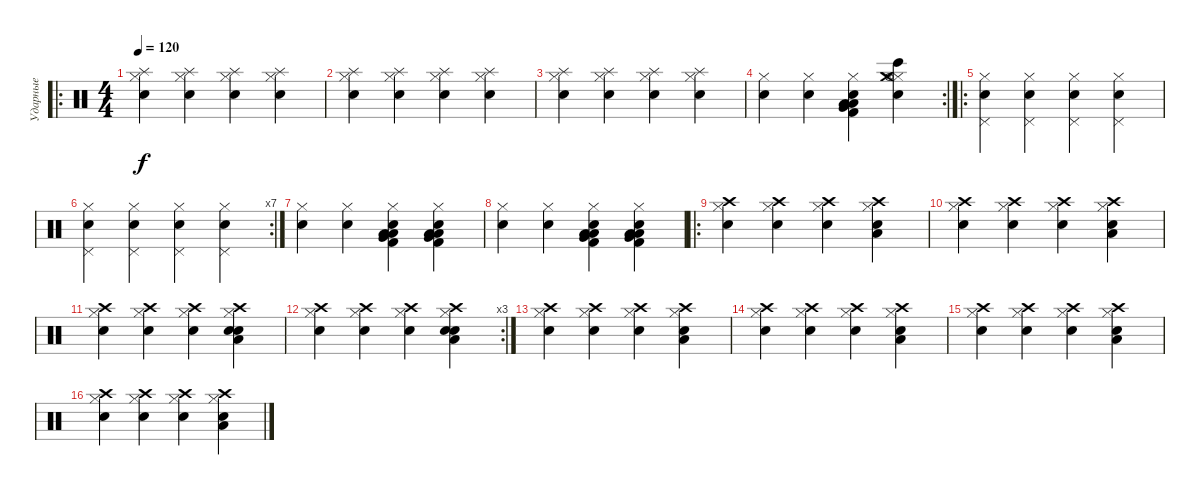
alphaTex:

\track ("Ударные" "Ударные") {instrument percussion}
\staff {score}
\articulation defaults
\ro
\ts (4 4)
\tempo 120
\clef neutral
\ks c
("Hi-Hat (closed)" "Snare (hit) 2" "Splash (hit)").4{dy f} ("Hi-Hat (closed)" "Snare (hit) 2" "Splash (hit)").4 ("Hi-Hat (closed)" "Snare (hit) 2" "Splash (hit)").4 ("Hi-Hat (closed)" "Snare (hit) 2" "Splash (hit)").4 |
("Hi-Hat (closed)" "Snare (hit) 2" "Splash (hit)").4 ("Hi-Hat (closed)" "Snare (hit) 2" "Splash (hit)").4 ("Hi-Hat (closed)" "Snare (hit) 2" "Splash (hit)").4 ("Hi-Hat (closed)" "Snare (hit) 2" "Splash (hit)").4 |
("Hi-Hat (closed)" "Snare (hit) 2" "Splash (hit)").4 ("Hi-Hat (closed)" "Snare (hit) 2" "Splash (hit)").4 ("Hi-Hat (closed)" "Snare (hit) 2" "Splash (hit)").4 ("Hi-Hat (closed)" "Snare (hit) 2" "Splash (hit)").4 |
\rc 2
("Hi-Hat (closed)" "Snare (hit) 2").4 ("Hi-Hat (closed)" "Snare (hit) 2").4 ("Hi-Hat (closed)" "Kick (hit) 2" "Low Tom (hit)" "Snare (hit) 2" "Low Floor Tom (hit)" "Very Low Tom (hit)").4 ("Hi-Hat (closed)" "Crash medium (hit)" "Hi-Hat (open)" "Snare (hit) 2" "Bongo High (hit)").4 |
\ro
("Hi-Hat (closed)" "Snare (hit) 2" "Pedal Hi-Hat (hit)").4 ("Hi-Hat (closed)" "Snare (hit) 2" "Pedal Hi-Hat (hit)").4 ("Hi-Hat (closed)" "Snare (hit) 2" "Pedal Hi-Hat (hit)").4 ("Hi-Hat (closed)" "Snare (hit) 2" "Pedal Hi-Hat (hit)").4 |
\rc 7
("Hi-Hat (closed)" "Snare (hit) 2" "Pedal Hi-Hat (hit)").4 ("Hi-Hat (closed)" "Snare (hit) 2" "Pedal Hi-Hat (hit)").4 ("Hi-Hat (closed)" "Snare (hit) 2" "Pedal Hi-Hat (hit)").4 ("Hi-Hat (closed)" "Snare (hit) 2" "Pedal Hi-Hat (hit)").4 |
("Hi-Hat (closed)" "Snare (hit) 2").4 ("Hi-Hat (closed)" "Snare (hit) 2").4 ("Hi-Hat (closed)" "Kick (hit) 2" "Low Tom (hit)" "Snare (hit) 2" "Low Floor Tom (hit)" "Very Low Tom (hit)").4 ("Hi-Hat (closed)" "Kick (hit) 2" "Low Tom (hit)" "Snare (hit) 2" "Low Floor Tom (hit)" "Very Low Tom (hit)").4 |
("Hi-Hat (closed)" "Snare (hit) 2").4 ("Hi-Hat (closed)" "Snare (hit) 2").4 ("Hi-Hat (closed)" "Kick (hit) 2" "Low Tom (hit)" "Snare (hit) 2" "Low Floor Tom (hit)" "Very Low Tom (hit)").4 ("Hi-Hat (closed)" "Kick (hit) 2" "Low Tom (hit)" "Snare (hit) 2" "Low Floor Tom (hit)" "Very Low Tom (hit)").4 |
\ro
("Hi-Hat (closed)" "Snare (hit) 2" "Crash high (hit)").4 ("Hi-Hat (closed)" "Snare (hit) 2" "Crash high (hit)").4 ("Hi-Hat (closed)" "Snare (hit) 2" "Crash high (hit)").4 ("Hi-Hat (closed)" "Low Floor Tom (hit)" "Snare (hit) 2" "Crash high (hit)").4 |
("Hi-Hat (closed)" "Snare (hit) 2" "Crash high (hit)").4 ("Hi-Hat (closed)" "Snare (hit) 2" "Crash high (hit)").4 ("Hi-Hat (closed)" "Snare (hit) 2" "Crash high (hit)").4 ("Hi-Hat (closed)" "Low Floor Tom (hit)" "Snare (hit) 2" "Crash high (hit)").4 |
("Hi-Hat (closed)" "Snare (hit) 2" "Crash high (hit)").4 ("Hi-Hat (closed)" "Snare (hit) 2" "Crash high (hit)").4 ("Hi-Hat (closed)" "Snare (hit) 2" "Crash high (hit)").4 ("Hi-Hat (closed)" "Electric Snare (hit)" "Low Floor Tom (hit)" "Snare (hit) 2" "Crash high (hit)").4 |
\rc 3
("Hi-Hat (closed)" "Snare (hit) 2" "Crash high (hit)").4 ("Hi-Hat (closed)" "Snare (hit) 2" "Crash high (hit)").4 ("Hi-Hat (closed)" "Snare (hit) 2" "Crash high (hit)").4 ("Hi-Hat (closed)" "Electric Snare (hit)" "Low Floor Tom (hit)" "Snare (hit) 2" "Crash high (hit)").4 |
("Hi-Hat (closed)" "Snare (hit) 2" "Crash high (hit)").4 ("Hi-Hat (closed)" "Snare (hit) 2" "Crash high (hit)").4 ("Hi-Hat (closed)" "Snare (hit) 2" "Crash high (hit)").4 ("Hi-Hat (closed)" "Low Floor Tom (hit)" "Snare (hit) 2" "Crash high (hit)").4 |
("Hi-Hat (closed)" "Snare (hit) 2" "Crash high (hit)").4 ("Hi-Hat (closed)" "Snare (hit) 2" "Crash high (hit)").4 ("Hi-Hat (closed)" "Snare (hit) 2" "Crash high (hit)").4 ("Hi-Hat (closed)" "Low Floor Tom (hit)" "Snare (hit) 2" "Crash high (hit)").4 |
("Hi-Hat (closed)" "Snare (hit) 2" "Crash high (hit)").4 ("Hi-Hat (closed)" "Snare (hit) 2" "Crash high (hit)").4 ("Hi-Hat (closed)" "Snare (hit) 2" "Crash high (hit)").4 ("Hi-Hat (closed)" "Low Floor Tom (hit)" "Snare (hit) 2" "Crash high (hit)").4 |
("Hi-Hat (closed)" "Snare (hit) 2" "Crash high (hit)").4 ("Hi-Hat (closed)" "Snare (hit) 2" "Crash high (hit)").4 ("Hi-Hat (closed)" "Snare (hit) 2" "Crash high (hit)").4 ("Hi-Hat (closed)" "Low Floor Tom (hit)" "Snare (hit) 2" "Crash high (hit)").4
